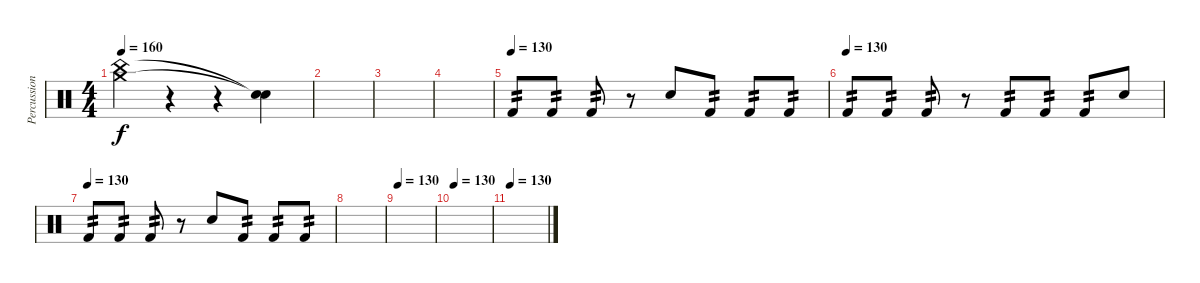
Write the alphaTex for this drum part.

\track ("Percussion" "Percussion") {instrument percussion}
\staff {score}
\articulation defaults
\ts (4 4)
\tempo 160
\clef neutral
\ks c
("Crash medium (hit)" "China (hit)").4{dy f} r.4 r.4 ("Snare (hit)"{t} "Snare (hit)"{t}).4 |
|
|
|
\tempo (130)
"Kick (hit) 2".8{tp 2} "Kick (hit) 2".8{tp 2} "Kick (hit) 2".8{tp 2} r.8 "Electric Snare (hit)".8 "Kick (hit) 2".8{tp 2} "Kick (hit) 2".8{tp 2} "Kick (hit) 2".8{tp 2} |
\tempo (130)
"Kick (hit) 2".8{tp 2} "Kick (hit) 2".8{tp 2} "Kick (hit) 2".8{tp 2} r.8 "Kick (hit) 2".8{tp 2} "Kick (hit) 2".8{tp 2} "Kick (hit) 2".8{tp 2} "Snare (hit)".8 |
\tempo (130)
"Kick (hit) 2".8{tp 2} "Kick (hit) 2".8{tp 2} "Kick (hit) 2".8{tp 2} r.8 "Electric Snare (hit)".8 "Kick (hit) 2".8{tp 2} "Kick (hit) 2".8{tp 2} "Kick (hit) 2".8{tp 2} |
|
\tempo 130
|
\tempo 130
|
\tempo 130
